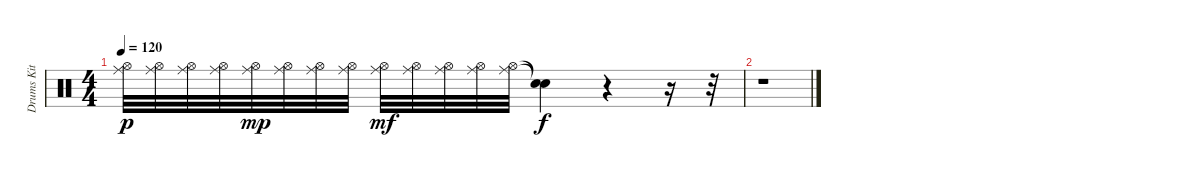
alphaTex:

\track ("Drums Kit 42" "Drums Kit ") {instrument percussion}
\staff {score}
\articulation defaults
\ts (4 4)
\tempo 120
\clef neutral
\ks c
("Ride (middle)" "Hi-Hat (open)").32{dy p} ("Ride (middle)" "Hi-Hat (open)").32 ("Ride (middle)" "Hi-Hat (open)").32 ("Ride (middle)" "Hi-Hat (open)").32 ("Ride (middle)" "Hi-Hat (open)").32{dy mp} ("Ride (middle)" "Hi-Hat (open)").32 ("Ride (middle)" "Hi-Hat (open)").32 ("Ride (middle)" "Hi-Hat (open)").32 ("Ride (middle)" "Hi-Hat (open)").32{dy mf} ("Ride (middle)" "Hi-Hat (open)").32 ("Ride (middle)" "Hi-Hat (open)").32 ("Ride (middle)" "Hi-Hat (open)").32 ("Ride (middle)" "Hi-Hat (open)").32 ("Snare (hit)"{t} "Snare (hit)"{t}).4{dy f} r.4 r.16 r.32 |
r.1
